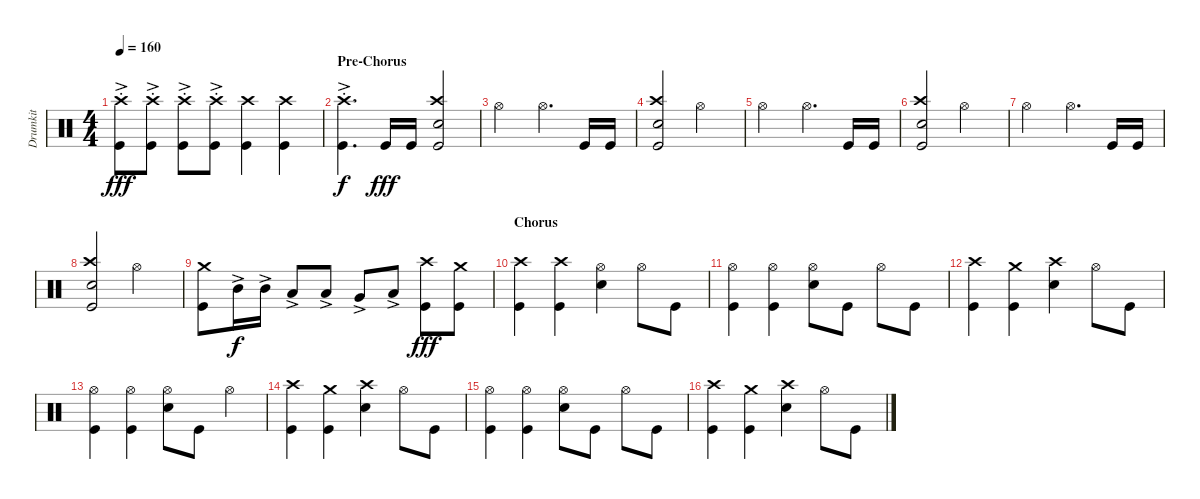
\track ("Drumkit" "Drumkit") {instrument percussion}
\staff {score}
\articulation defaults
\ts (4 4)
\tempo 160
\clef neutral
\ks c
("Kick (hit)" "Crash high (hit)"{ac st}).8{dy fff} ("Kick (hit)" "Crash high (hit)"{ac st}).8 ("Kick (hit)" "Crash high (hit)"{ac st}).8 ("Kick (hit)" "Crash high (hit)"{ac st}).8 ("Kick (hit)" "Crash high (hit)").4 ("Kick (hit)" "Crash high (hit)").4 |
\section ("" "Pre-Chorus")
("Kick (hit)"{ac st} "Crash high (hit)"{ac st}).4{d dy f} "Kick (hit)".16{dy fff} "Kick (hit)".16 ("Kick (hit)" "Crash high (hit)" "Snare (hit) 2").2 |
"Hi-Hat (open)".2 "Hi-Hat (open)".4{d} "Kick (hit)".16 "Kick (hit)".16 |
("Kick (hit)" "Crash high (hit)" "Snare (hit) 2").2 "Hi-Hat (open)".2 |
"Hi-Hat (open)".2 "Hi-Hat (open)".4{d} "Kick (hit)".16 "Kick (hit)".16 |
("Kick (hit)" "Crash high (hit)" "Snare (hit) 2").2 "Hi-Hat (open)".2 |
"Hi-Hat (open)".2 "Hi-Hat (open)".4{d} "Kick (hit)".16 "Kick (hit)".16 |
("Kick (hit)" "Crash high (hit)" "Snare (hit) 2").2 "Hi-Hat (open)".2 |
("Kick (hit)" "Crash medium (hit)").8 "Mid Tom (hit)"{ac}.16{dy f} "Mid Tom (hit)"{ac}.16 "Low Tom (hit)"{ac}.8 "Low Tom (hit)"{ac}.8 "Very Low Tom (hit)"{ac}.8 "Low Floor Tom (hit)"{ac}.8 ("Kick (hit)" "Crash high (hit)").8{dy fff} ("Kick (hit)" "Crash medium (hit)").8 |
\section ("" "Chorus")
("Kick (hit)" "Crash high (hit)").4 ("Kick (hit)" "Crash high (hit)").4 ("Hi-Hat (open)" "Snare (hit) 2").4 "Hi-Hat (open)".8 "Kick (hit)".8 |
("Kick (hit)" "Hi-Hat (open)").4 ("Hi-Hat (open)" "Kick (hit)").4 ("Hi-Hat (open)" "Snare (hit) 2").8 "Kick (hit)".8 "Hi-Hat (open)".8 "Kick (hit)".8 |
("Kick (hit)" "Crash high (hit)").4 ("Kick (hit)" "Crash medium (hit)").4 ("Snare (hit) 2" "Crash high (hit)").4 "Hi-Hat (open)".8 "Kick (hit)".8 |
("Kick (hit)" "Hi-Hat (open)").4 ("Hi-Hat (open)" "Kick (hit)").4 ("Hi-Hat (open)" "Snare (hit) 2").8 "Kick (hit)".8 "Hi-Hat (open)".4 |
("Kick (hit)" "Crash high (hit)").4 ("Kick (hit)" "Crash medium (hit)").4 ("Snare (hit) 2" "Crash high (hit)").4 "Hi-Hat (open)".8 "Kick (hit)".8 |
("Kick (hit)" "Hi-Hat (open)").4 ("Hi-Hat (open)" "Kick (hit)").4 ("Hi-Hat (open)" "Snare (hit) 2").8 "Kick (hit)".8 "Hi-Hat (open)".8 "Kick (hit)".8 |
("Kick (hit)" "Crash high (hit)").4 ("Kick (hit)" "Crash medium (hit)").4 ("Snare (hit) 2" "Crash high (hit)").4 "Hi-Hat (open)".8 "Kick (hit)".8
